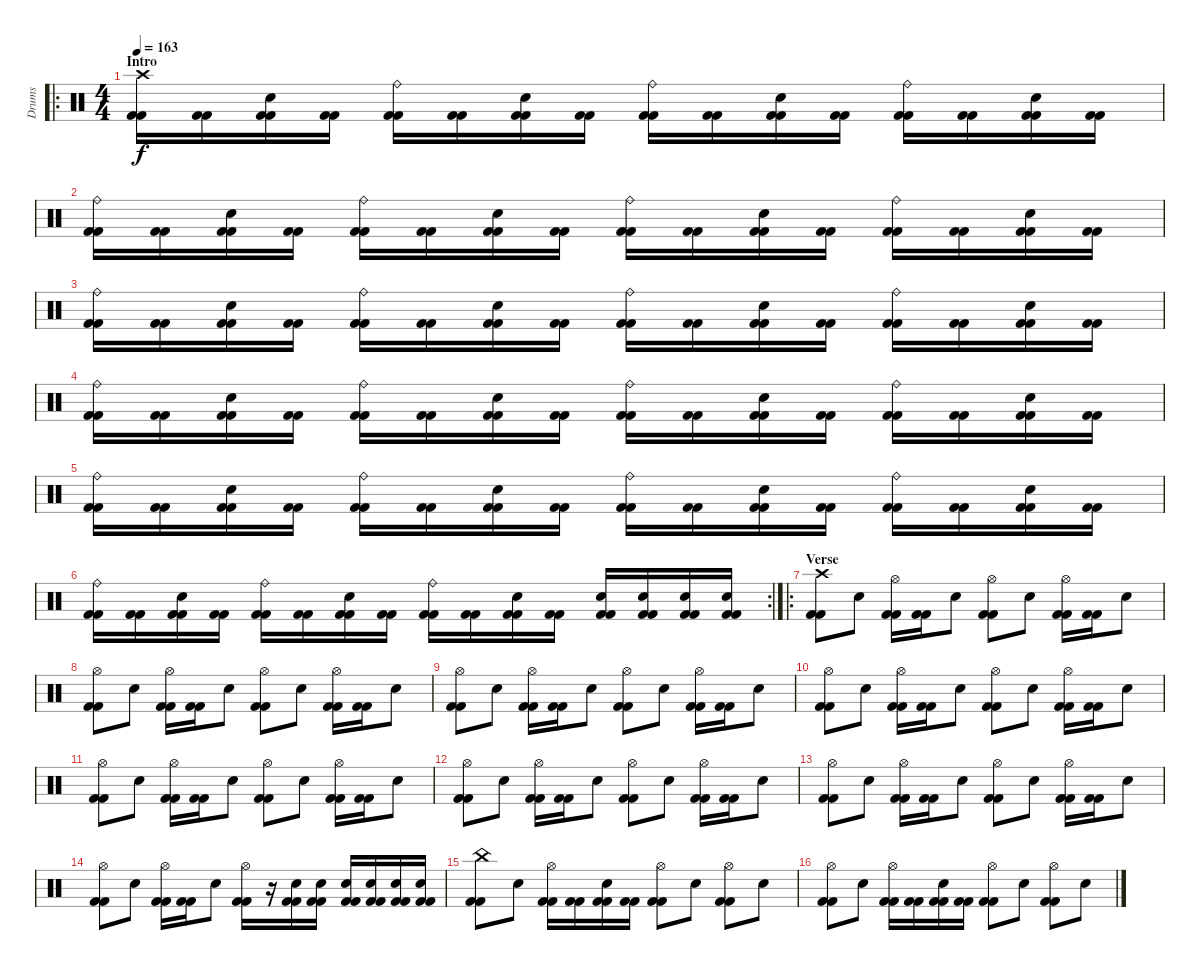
\track ("Drums" "Drums") {instrument percussion}
\staff {score}
\articulation defaults
\ro
\ts (4 4)
\section ("" "Intro")
\tempo 163
\clef neutral
\ks c
("Kick (hit) 2" "Kick (hit) 2" "Crash high (hit)").16{dy f} ("Kick (hit) 2" "Kick (hit) 2").16 ("Kick (hit) 2" "Kick (hit) 2" "Snare (hit) 2").16 ("Kick (hit) 2" "Kick (hit) 2").16 ("Kick (hit) 2" "Kick (hit) 2" "Ride (bell)").16 ("Kick (hit) 2" "Kick (hit) 2").16 ("Kick (hit) 2" "Kick (hit) 2" "Snare (hit) 2").16 ("Kick (hit) 2" "Kick (hit) 2").16 ("Kick (hit) 2" "Kick (hit) 2" "Ride (bell)").16 ("Kick (hit) 2" "Kick (hit) 2").16 ("Kick (hit) 2" "Kick (hit) 2" "Snare (hit) 2").16 ("Kick (hit) 2" "Kick (hit) 2").16 ("Kick (hit) 2" "Kick (hit) 2" "Ride (bell)").16 ("Kick (hit) 2" "Kick (hit) 2").16 ("Kick (hit) 2" "Kick (hit) 2" "Snare (hit) 2").16 ("Kick (hit) 2" "Kick (hit) 2").16 |
("Kick (hit) 2" "Kick (hit) 2" "Ride (bell)").16 ("Kick (hit) 2" "Kick (hit) 2").16 ("Kick (hit) 2" "Kick (hit) 2" "Snare (hit) 2").16 ("Kick (hit) 2" "Kick (hit) 2").16 ("Kick (hit) 2" "Kick (hit) 2" "Ride (bell)").16 ("Kick (hit) 2" "Kick (hit) 2").16 ("Kick (hit) 2" "Kick (hit) 2" "Snare (hit) 2").16 ("Kick (hit) 2" "Kick (hit) 2").16 ("Kick (hit) 2" "Kick (hit) 2" "Ride (bell)").16 ("Kick (hit) 2" "Kick (hit) 2").16 ("Kick (hit) 2" "Kick (hit) 2" "Snare (hit) 2").16 ("Kick (hit) 2" "Kick (hit) 2").16 ("Kick (hit) 2" "Kick (hit) 2" "Ride (bell)").16 ("Kick (hit) 2" "Kick (hit) 2").16 ("Kick (hit) 2" "Kick (hit) 2" "Snare (hit) 2").16 ("Kick (hit) 2" "Kick (hit) 2").16 |
("Kick (hit) 2" "Kick (hit) 2" "Ride (bell)").16 ("Kick (hit) 2" "Kick (hit) 2").16 ("Kick (hit) 2" "Kick (hit) 2" "Snare (hit) 2").16 ("Kick (hit) 2" "Kick (hit) 2").16 ("Kick (hit) 2" "Kick (hit) 2" "Ride (bell)").16 ("Kick (hit) 2" "Kick (hit) 2").16 ("Kick (hit) 2" "Kick (hit) 2" "Snare (hit) 2").16 ("Kick (hit) 2" "Kick (hit) 2").16 ("Kick (hit) 2" "Kick (hit) 2" "Ride (bell)").16 ("Kick (hit) 2" "Kick (hit) 2").16 ("Kick (hit) 2" "Kick (hit) 2" "Snare (hit) 2").16 ("Kick (hit) 2" "Kick (hit) 2").16 ("Kick (hit) 2" "Kick (hit) 2" "Ride (bell)").16 ("Kick (hit) 2" "Kick (hit) 2").16 ("Kick (hit) 2" "Kick (hit) 2" "Snare (hit) 2").16 ("Kick (hit) 2" "Kick (hit) 2").16 |
("Kick (hit) 2" "Kick (hit) 2" "Ride (bell)").16 ("Kick (hit) 2" "Kick (hit) 2").16 ("Kick (hit) 2" "Kick (hit) 2" "Snare (hit) 2").16 ("Kick (hit) 2" "Kick (hit) 2").16 ("Kick (hit) 2" "Kick (hit) 2" "Ride (bell)").16 ("Kick (hit) 2" "Kick (hit) 2").16 ("Kick (hit) 2" "Kick (hit) 2" "Snare (hit) 2").16 ("Kick (hit) 2" "Kick (hit) 2").16 ("Kick (hit) 2" "Kick (hit) 2" "Ride (bell)").16 ("Kick (hit) 2" "Kick (hit) 2").16 ("Kick (hit) 2" "Kick (hit) 2" "Snare (hit) 2").16 ("Kick (hit) 2" "Kick (hit) 2").16 ("Kick (hit) 2" "Kick (hit) 2" "Ride (bell)").16 ("Kick (hit) 2" "Kick (hit) 2").16 ("Kick (hit) 2" "Kick (hit) 2" "Snare (hit) 2").16 ("Kick (hit) 2" "Kick (hit) 2").16 |
("Kick (hit) 2" "Kick (hit) 2" "Ride (bell)").16 ("Kick (hit) 2" "Kick (hit) 2").16 ("Kick (hit) 2" "Kick (hit) 2" "Snare (hit) 2").16 ("Kick (hit) 2" "Kick (hit) 2").16 ("Kick (hit) 2" "Kick (hit) 2" "Ride (bell)").16 ("Kick (hit) 2" "Kick (hit) 2").16 ("Kick (hit) 2" "Kick (hit) 2" "Snare (hit) 2").16 ("Kick (hit) 2" "Kick (hit) 2").16 ("Kick (hit) 2" "Kick (hit) 2" "Ride (bell)").16 ("Kick (hit) 2" "Kick (hit) 2").16 ("Kick (hit) 2" "Kick (hit) 2" "Snare (hit) 2").16 ("Kick (hit) 2" "Kick (hit) 2").16 ("Kick (hit) 2" "Kick (hit) 2" "Ride (bell)").16 ("Kick (hit) 2" "Kick (hit) 2").16 ("Kick (hit) 2" "Kick (hit) 2" "Snare (hit) 2").16 ("Kick (hit) 2" "Kick (hit) 2").16 |
\rc 2
("Kick (hit) 2" "Kick (hit) 2" "Ride (bell)").16 ("Kick (hit) 2" "Kick (hit) 2").16 ("Kick (hit) 2" "Kick (hit) 2" "Snare (hit) 2").16 ("Kick (hit) 2" "Kick (hit) 2").16 ("Kick (hit) 2" "Kick (hit) 2" "Ride (bell)").16 ("Kick (hit) 2" "Kick (hit) 2").16 ("Kick (hit) 2" "Kick (hit) 2" "Snare (hit) 2").16 ("Kick (hit) 2" "Kick (hit) 2").16 ("Kick (hit) 2" "Kick (hit) 2" "Ride (bell)").16 ("Kick (hit) 2" "Kick (hit) 2").16 ("Kick (hit) 2" "Kick (hit) 2" "Electric Snare (hit)").16 ("Kick (hit) 2" "Kick (hit) 2").16 ("Kick (hit) 2" "Kick (hit) 2" "Electric Snare (hit)").16 ("Kick (hit) 2" "Kick (hit) 2" "Electric Snare (hit)").16 ("Kick (hit) 2" "Kick (hit) 2" "Electric Snare (hit)").16 ("Kick (hit) 2" "Kick (hit) 2" "Electric Snare (hit)").16 |
\ro
\section ("" "Verse")
("Kick (hit) 2" "Kick (hit) 2" "Crash high (hit)").8 "Snare (hit) 2".8 ("Kick (hit) 2" "Kick (hit) 2" "Hi-Hat (open)").16 ("Kick (hit) 2" "Kick (hit) 2").16 "Snare (hit) 2".8 ("Kick (hit) 2" "Kick (hit) 2" "Hi-Hat (open)").8 "Snare (hit) 2".8 ("Kick (hit) 2" "Kick (hit) 2" "Hi-Hat (open)").16 ("Kick (hit) 2" "Kick (hit) 2").16 "Snare (hit) 2".8 |
("Kick (hit) 2" "Kick (hit) 2" "Hi-Hat (open)").8 "Snare (hit) 2".8 ("Kick (hit) 2" "Kick (hit) 2" "Hi-Hat (open)").16 ("Kick (hit) 2" "Kick (hit) 2").16 "Snare (hit) 2".8 ("Kick (hit) 2" "Kick (hit) 2" "Hi-Hat (open)").8 "Snare (hit) 2".8 ("Kick (hit) 2" "Kick (hit) 2" "Hi-Hat (open)").16 ("Kick (hit) 2" "Kick (hit) 2").16 "Snare (hit) 2".8 |
("Kick (hit) 2" "Kick (hit) 2" "Hi-Hat (open)").8 "Snare (hit) 2".8 ("Kick (hit) 2" "Kick (hit) 2" "Hi-Hat (open)").16 ("Kick (hit) 2" "Kick (hit) 2").16 "Snare (hit) 2".8 ("Kick (hit) 2" "Kick (hit) 2" "Hi-Hat (open)").8 "Snare (hit) 2".8 ("Kick (hit) 2" "Kick (hit) 2" "Hi-Hat (open)").16 ("Kick (hit) 2" "Kick (hit) 2").16 "Snare (hit) 2".8 |
("Kick (hit) 2" "Kick (hit) 2" "Hi-Hat (open)").8 "Snare (hit) 2".8 ("Kick (hit) 2" "Kick (hit) 2" "Hi-Hat (open)").16 ("Kick (hit) 2" "Kick (hit) 2").16 "Snare (hit) 2".8 ("Kick (hit) 2" "Kick (hit) 2" "Hi-Hat (open)").8 "Snare (hit) 2".8 ("Kick (hit) 2" "Kick (hit) 2" "Hi-Hat (open)").16 ("Kick (hit) 2" "Kick (hit) 2").16 "Snare (hit) 2".8 |
("Kick (hit) 2" "Kick (hit) 2" "Hi-Hat (open)").8 "Snare (hit) 2".8 ("Kick (hit) 2" "Kick (hit) 2" "Hi-Hat (open)").16 ("Kick (hit) 2" "Kick (hit) 2").16 "Snare (hit) 2".8 ("Kick (hit) 2" "Kick (hit) 2" "Hi-Hat (open)").8 "Snare (hit) 2".8 ("Kick (hit) 2" "Kick (hit) 2" "Hi-Hat (open)").16 ("Kick (hit) 2" "Kick (hit) 2").16 "Snare (hit) 2".8 |
("Kick (hit) 2" "Kick (hit) 2" "Hi-Hat (open)").8 "Snare (hit) 2".8 ("Kick (hit) 2" "Kick (hit) 2" "Hi-Hat (open)").16 ("Kick (hit) 2" "Kick (hit) 2").16 "Snare (hit) 2".8 ("Kick (hit) 2" "Kick (hit) 2" "Hi-Hat (open)").8 "Snare (hit) 2".8 ("Kick (hit) 2" "Kick (hit) 2" "Hi-Hat (open)").16 ("Kick (hit) 2" "Kick (hit) 2").16 "Snare (hit) 2".8 |
("Kick (hit) 2" "Kick (hit) 2" "Hi-Hat (open)").8 "Snare (hit) 2".8 ("Kick (hit) 2" "Kick (hit) 2" "Hi-Hat (open)").16 ("Kick (hit) 2" "Kick (hit) 2").16 "Snare (hit) 2".8 ("Kick (hit) 2" "Kick (hit) 2" "Hi-Hat (open)").8 "Snare (hit) 2".8 ("Kick (hit) 2" "Kick (hit) 2" "Hi-Hat (open)").16 ("Kick (hit) 2" "Kick (hit) 2").16 "Snare (hit) 2".8 |
("Kick (hit) 2" "Kick (hit) 2" "Hi-Hat (open)").8 "Snare (hit) 2".8 ("Kick (hit) 2" "Kick (hit) 2" "Hi-Hat (open)").16 ("Kick (hit) 2" "Kick (hit) 2").16 "Snare (hit) 2".8 ("Kick (hit) 2" "Kick (hit) 2" "Hi-Hat (open)").16 r.16 ("Kick (hit) 2" "Kick (hit) 2" "Electric Snare (hit)").16 ("Kick (hit) 2" "Kick (hit) 2" "Electric Snare (hit)").16 ("Kick (hit) 2" "Kick (hit) 2" "Electric Snare (hit)").16 ("Kick (hit) 2" "Kick (hit) 2" "Electric Snare (hit)").16 ("Kick (hit) 2" "Kick (hit) 2" "Electric Snare (hit)").16 ("Kick (hit) 2" "Kick (hit) 2" "Electric Snare (hit)").16 |
("Kick (hit) 2" "Kick (hit) 2" "China (hit)").8 "Snare (hit) 2".8 ("Kick (hit) 2" "Kick (hit) 2" "Hi-Hat (open)").16 ("Kick (hit) 2" "Kick (hit) 2").16 ("Kick (hit) 2" "Kick (hit) 2" "Snare (hit) 2").16 ("Kick (hit) 2" "Kick (hit) 2").16 ("Kick (hit) 2" "Kick (hit) 2" "Hi-Hat (open)").8 "Snare (hit) 2".8 ("Kick (hit) 2" "Kick (hit) 2" "Hi-Hat (open)").8 "Snare (hit) 2".8 |
("Kick (hit) 2" "Kick (hit) 2" "Hi-Hat (open)").8 "Snare (hit) 2".8 ("Kick (hit) 2" "Kick (hit) 2" "Hi-Hat (open)").16 ("Kick (hit) 2" "Kick (hit) 2").16 ("Kick (hit) 2" "Kick (hit) 2" "Snare (hit) 2").16 ("Kick (hit) 2" "Kick (hit) 2").16 ("Kick (hit) 2" "Kick (hit) 2" "Hi-Hat (open)").8 "Snare (hit) 2".8 ("Kick (hit) 2" "Kick (hit) 2" "Hi-Hat (open)").8 "Snare (hit) 2".8
